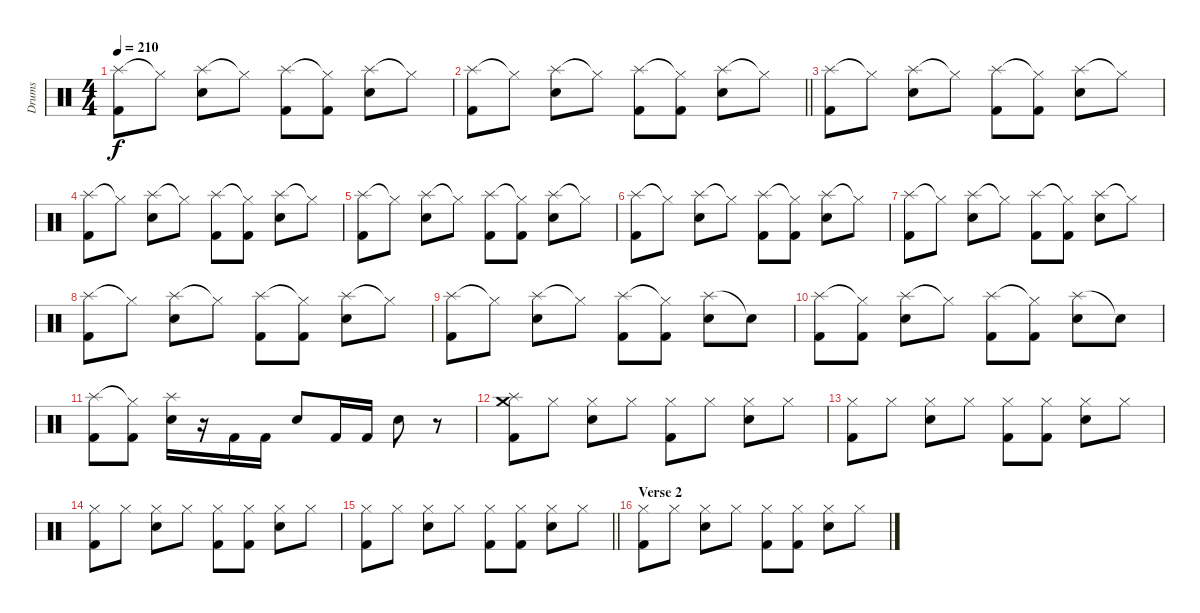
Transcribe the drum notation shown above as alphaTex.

\track ("Drums" "Drums") {instrument percussion}
\staff {score}
\articulation defaults
\ts (4 4)
\tempo 210
\clef neutral
\ks c
("Splash (hit)" "Kick (hit) 2").8{dy f} "Hi-Hat (closed)"{t}.8 ("Splash (hit)" "Electric Snare (hit)").8 "Hi-Hat (closed)"{t}.8 ("Splash (hit)" "Kick (hit) 2").8 ("Hi-Hat (closed)"{t} "Kick (hit) 2").8 ("Splash (hit)" "Electric Snare (hit)").8 "Hi-Hat (closed)"{t}.8 |
\barLineRight lightlight
("Splash (hit)" "Kick (hit) 2").8 "Hi-Hat (closed)"{t}.8 ("Splash (hit)" "Electric Snare (hit)").8 "Hi-Hat (closed)"{t}.8 ("Splash (hit)" "Kick (hit) 2").8 ("Hi-Hat (closed)"{t} "Kick (hit) 2").8 ("Splash (hit)" "Electric Snare (hit)").8 "Hi-Hat (closed)"{t}.8 |
("Splash (hit)" "Kick (hit) 2").8 "Hi-Hat (closed)"{t}.8 ("Splash (hit)" "Electric Snare (hit)").8 "Hi-Hat (closed)"{t}.8 ("Splash (hit)" "Kick (hit) 2").8 ("Hi-Hat (closed)"{t} "Kick (hit) 2").8 ("Splash (hit)" "Electric Snare (hit)").8 "Hi-Hat (closed)"{t}.8 |
("Splash (hit)" "Kick (hit) 2").8 "Hi-Hat (closed)"{t}.8 ("Splash (hit)" "Electric Snare (hit)").8 "Hi-Hat (closed)"{t}.8 ("Splash (hit)" "Kick (hit) 2").8 ("Hi-Hat (closed)"{t} "Kick (hit) 2").8 ("Splash (hit)" "Electric Snare (hit)").8 "Hi-Hat (closed)"{t}.8 |
("Splash (hit)" "Kick (hit) 2").8 "Hi-Hat (closed)"{t}.8 ("Splash (hit)" "Electric Snare (hit)").8 "Hi-Hat (closed)"{t}.8 ("Splash (hit)" "Kick (hit) 2").8 ("Hi-Hat (closed)"{t} "Kick (hit) 2").8 ("Splash (hit)" "Electric Snare (hit)").8 "Hi-Hat (closed)"{t}.8 |
("Splash (hit)" "Kick (hit) 2").8 "Hi-Hat (closed)"{t}.8 ("Splash (hit)" "Electric Snare (hit)").8 "Hi-Hat (closed)"{t}.8 ("Splash (hit)" "Kick (hit) 2").8 ("Hi-Hat (closed)"{t} "Kick (hit) 2").8 ("Splash (hit)" "Electric Snare (hit)").8 "Hi-Hat (closed)"{t}.8 |
("Splash (hit)" "Kick (hit) 2").8 "Hi-Hat (closed)"{t}.8 ("Splash (hit)" "Electric Snare (hit)").8 "Hi-Hat (closed)"{t}.8 ("Splash (hit)" "Kick (hit) 2").8 ("Hi-Hat (closed)"{t} "Kick (hit) 2").8 ("Splash (hit)" "Electric Snare (hit)").8 "Hi-Hat (closed)"{t}.8 |
("Splash (hit)" "Kick (hit) 2").8 "Hi-Hat (closed)"{t}.8 ("Splash (hit)" "Electric Snare (hit)").8 "Hi-Hat (closed)"{t}.8 ("Splash (hit)" "Kick (hit) 2").8 ("Hi-Hat (closed)"{t} "Kick (hit) 2").8 ("Splash (hit)" "Electric Snare (hit)").8 "Hi-Hat (closed)"{t}.8 |
("Splash (hit)" "Kick (hit) 2").8 "Hi-Hat (closed)"{t}.8 ("Splash (hit)" "Electric Snare (hit)").8 "Hi-Hat (closed)"{t}.8 ("Splash (hit)" "Kick (hit) 2").8 ("Hi-Hat (closed)"{t} "Kick (hit) 2").8 ("Splash (hit)" "Electric Snare (hit)").8 "Snare (hit)"{t}.8 |
("Splash (hit)" "Kick (hit) 2").8 ("Hi-Hat (closed)"{t} "Kick (hit) 2").8 ("Splash (hit)" "Electric Snare (hit)").8 "Hi-Hat (closed)"{t}.8 ("Splash (hit)" "Kick (hit) 2").8 ("Hi-Hat (closed)"{t} "Kick (hit) 2").8 ("Splash (hit)" "Electric Snare (hit)").8 "Snare (hit)"{t}.8 |
("Splash (hit)" "Kick (hit) 2").8 ("Hi-Hat (closed)"{t} "Kick (hit) 2").8 ("Splash (hit)" "Electric Snare (hit)").16 r.16 "Kick (hit) 2".16 "Kick (hit) 2".16 "Electric Snare (hit)".8 "Kick (hit) 2".16 "Kick (hit) 2".16 "Electric Snare (hit)".8 r.8 |
("Splash (hit)" "Crash medium (hit)" "Kick (hit) 2").8 "Hi-Hat (closed)".8 ("Hi-Hat (closed)" "Electric Snare (hit)").8 "Hi-Hat (closed)".8 ("Hi-Hat (closed)" "Kick (hit) 2").8 "Hi-Hat (closed)".8 ("Hi-Hat (closed)" "Electric Snare (hit)").8 "Hi-Hat (closed)".8 |
("Hi-Hat (closed)" "Kick (hit) 2").8 "Hi-Hat (closed)".8 ("Hi-Hat (closed)" "Electric Snare (hit)").8 "Hi-Hat (closed)".8 ("Hi-Hat (closed)" "Kick (hit) 2").8 ("Hi-Hat (closed)" "Kick (hit) 2").8 ("Hi-Hat (closed)" "Electric Snare (hit)").8 "Hi-Hat (closed)".8 |
("Hi-Hat (closed)" "Kick (hit) 2").8 "Hi-Hat (closed)".8 ("Hi-Hat (closed)" "Electric Snare (hit)").8 "Hi-Hat (closed)".8 ("Hi-Hat (closed)" "Kick (hit) 2").8 ("Hi-Hat (closed)" "Kick (hit) 2").8 ("Hi-Hat (closed)" "Electric Snare (hit)").8 "Hi-Hat (closed)".8 |
\barLineRight lightlight
("Hi-Hat (closed)" "Kick (hit) 2").8 "Hi-Hat (closed)".8 ("Hi-Hat (closed)" "Electric Snare (hit)").8 "Hi-Hat (closed)".8 ("Hi-Hat (closed)" "Kick (hit) 2").8 ("Hi-Hat (closed)" "Kick (hit) 2").8 ("Hi-Hat (closed)" "Electric Snare (hit)").8 "Hi-Hat (closed)".8 |
\section ("" "Verse 2")
("Hi-Hat (closed)" "Kick (hit) 2").8 "Hi-Hat (closed)".8 ("Hi-Hat (closed)" "Electric Snare (hit)").8 "Hi-Hat (closed)".8 ("Hi-Hat (closed)" "Kick (hit) 2").8 ("Hi-Hat (closed)" "Kick (hit) 2").8 ("Hi-Hat (closed)" "Electric Snare (hit)").8 "Hi-Hat (closed)".8
